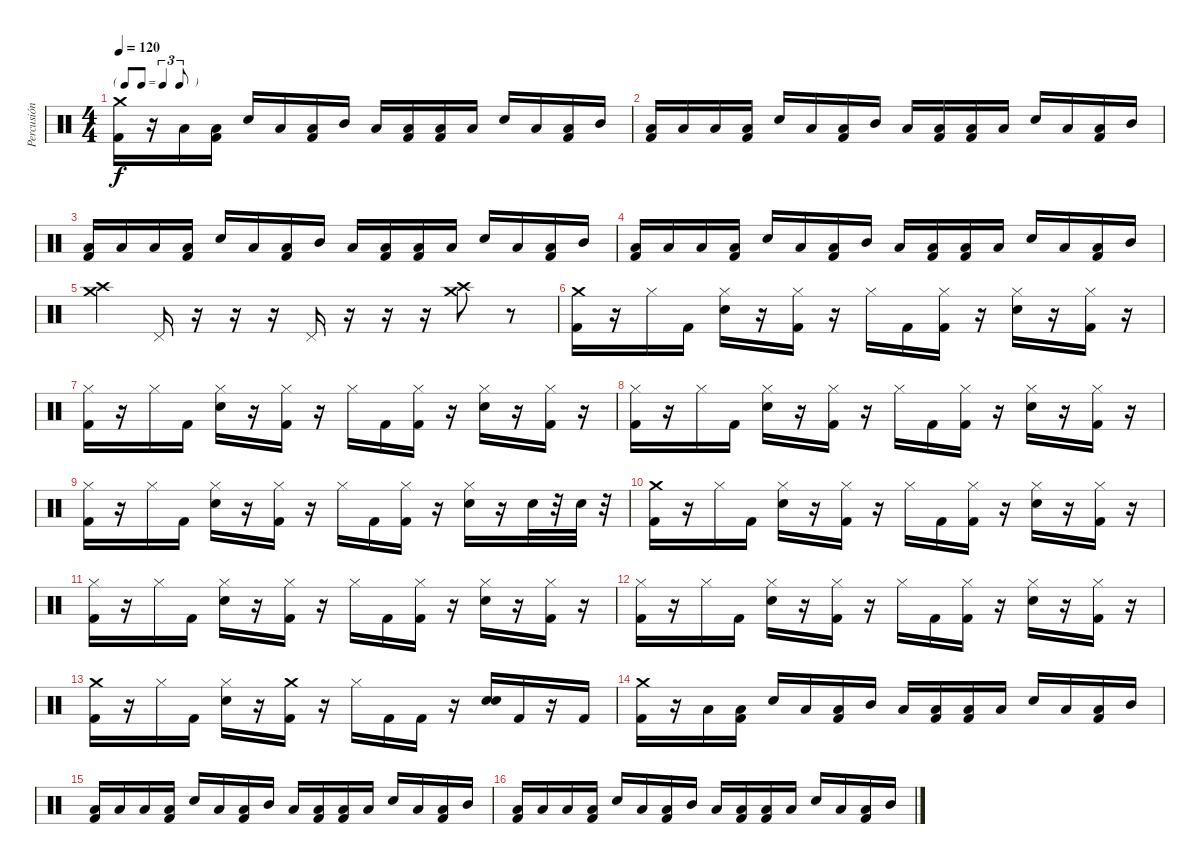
\track ("Percusión" "Percusión") {instrument percussion}
\staff {score}
\articulation defaults
\ts (4 4)
\tf triplet8th
\tempo 120
\clef neutral
\ks c
("Crash medium (hit)" "Kick (hit) 2").16{dy f} r.16 "Low Tom (hit)".16 ("Low Tom (hit)" "Kick (hit) 2").16 "Snare (hit) 2".16 "Low Tom (hit)".16 ("Low Tom (hit)" "Kick (hit) 2").16 "Mid Tom (hit)".16 "Low Tom (hit)".16 ("Low Tom (hit)" "Kick (hit) 2").16 ("Low Tom (hit)" "Kick (hit) 2").16 "Low Tom (hit)".16 "Snare (hit) 2".16 "Low Tom (hit)".16 ("Low Tom (hit)" "Kick (hit) 2").16 "Mid Tom (hit)".16 |
("Low Tom (hit)" "Kick (hit) 2").16 "Low Tom (hit)".16 "Low Tom (hit)".16 ("Low Tom (hit)" "Kick (hit) 2").16 "Snare (hit) 2".16 "Low Tom (hit)".16 ("Low Tom (hit)" "Kick (hit) 2").16 "Mid Tom (hit)".16 "Low Tom (hit)".16 ("Low Tom (hit)" "Kick (hit) 2").16 ("Low Tom (hit)" "Kick (hit) 2").16 "Low Tom (hit)".16 "Snare (hit) 2".16 "Low Tom (hit)".16 ("Low Tom (hit)" "Kick (hit) 2").16 "Mid Tom (hit)".16 |
("Low Tom (hit)" "Kick (hit) 2").16 "Low Tom (hit)".16 "Low Tom (hit)".16 ("Low Tom (hit)" "Kick (hit) 2").16 "Snare (hit) 2".16 "Low Tom (hit)".16 ("Low Tom (hit)" "Kick (hit) 2").16 "Mid Tom (hit)".16 "Low Tom (hit)".16 ("Low Tom (hit)" "Kick (hit) 2").16 ("Low Tom (hit)" "Kick (hit) 2").16 "Low Tom (hit)".16 "Snare (hit) 2".16 "Low Tom (hit)".16 ("Low Tom (hit)" "Kick (hit) 2").16 "Mid Tom (hit)".16 |
("Low Tom (hit)" "Kick (hit) 2").16 "Low Tom (hit)".16 "Low Tom (hit)".16 ("Low Tom (hit)" "Kick (hit) 2").16 "Snare (hit) 2".16 "Low Tom (hit)".16 ("Low Tom (hit)" "Kick (hit) 2").16 "Mid Tom (hit)".16 "Low Tom (hit)".16 ("Low Tom (hit)" "Kick (hit) 2").16 ("Low Tom (hit)" "Kick (hit) 2").16 "Low Tom (hit)".16 "Snare (hit) 2".16 "Low Tom (hit)".16 ("Low Tom (hit)" "Kick (hit) 2").16 "Mid Tom (hit)".16 |
("Crash medium (hit)" "Crash high (hit)").4 "Pedal Hi-Hat (hit)".16 r.16 r.16 r.16 "Pedal Hi-Hat (hit)".16 r.16 r.16 r.16 ("Crash medium (hit)" "Crash high (hit)").8 r.8 |
("Crash medium (hit)" "Kick (hit) 2").16 r.16 "Hi-Hat (closed)".16 "Kick (hit) 2".16 ("Hi-Hat (closed)" "Snare (hit) 2").16 r.16 ("Hi-Hat (closed)" "Kick (hit) 2").16 r.16 "Hi-Hat (closed)".16 "Kick (hit) 2".16 ("Hi-Hat (closed)" "Kick (hit) 2").16 r.16 ("Hi-Hat (closed)" "Snare (hit) 2").16 r.16 ("Hi-Hat (closed)" "Kick (hit) 2").16 r.16 |
("Hi-Hat (closed)" "Kick (hit) 2").16 r.16 "Hi-Hat (closed)".16 "Kick (hit) 2".16 ("Hi-Hat (closed)" "Snare (hit) 2").16 r.16 ("Hi-Hat (closed)" "Kick (hit) 2").16 r.16 "Hi-Hat (closed)".16 "Kick (hit) 2".16 ("Hi-Hat (closed)" "Kick (hit) 2").16 r.16 ("Hi-Hat (closed)" "Snare (hit) 2").16 r.16 ("Hi-Hat (closed)" "Kick (hit) 2").16 r.16 |
("Hi-Hat (closed)" "Kick (hit) 2").16 r.16 "Hi-Hat (closed)".16 "Kick (hit) 2".16 ("Hi-Hat (closed)" "Snare (hit) 2").16 r.16 ("Hi-Hat (closed)" "Kick (hit) 2").16 r.16 "Hi-Hat (closed)".16 "Kick (hit) 2".16 ("Hi-Hat (closed)" "Kick (hit) 2").16 r.16 ("Hi-Hat (closed)" "Snare (hit) 2").16 r.16 ("Hi-Hat (closed)" "Kick (hit) 2").16 r.16 |
("Hi-Hat (closed)" "Kick (hit) 2").16 r.16 "Hi-Hat (closed)".16 "Kick (hit) 2".16 ("Hi-Hat (closed)" "Snare (hit) 2").16 r.16 ("Hi-Hat (closed)" "Kick (hit) 2").16 r.16 "Hi-Hat (closed)".16 "Kick (hit) 2".16 ("Hi-Hat (closed)" "Kick (hit) 2").16 r.16 ("Hi-Hat (closed)" "Snare (hit) 2").16 r.16 "Snare (hit) 2".32 r.32 "Snare (hit) 2".32 r.32 |
("Crash medium (hit)" "Kick (hit) 2").16 r.16 "Hi-Hat (closed)".16 "Kick (hit) 2".16 ("Hi-Hat (closed)" "Snare (hit) 2").16 r.16 ("Hi-Hat (closed)" "Kick (hit) 2").16 r.16 "Hi-Hat (closed)".16 "Kick (hit) 2".16 ("Hi-Hat (closed)" "Kick (hit) 2").16 r.16 ("Hi-Hat (closed)" "Snare (hit) 2").16 r.16 ("Hi-Hat (closed)" "Kick (hit) 2").16 r.16 |
("Hi-Hat (closed)" "Kick (hit) 2").16 r.16 "Hi-Hat (closed)".16 "Kick (hit) 2".16 ("Hi-Hat (closed)" "Snare (hit) 2").16 r.16 ("Hi-Hat (closed)" "Kick (hit) 2").16 r.16 "Hi-Hat (closed)".16 "Kick (hit) 2".16 ("Hi-Hat (closed)" "Kick (hit) 2").16 r.16 ("Hi-Hat (closed)" "Snare (hit) 2").16 r.16 ("Hi-Hat (closed)" "Kick (hit) 2").16 r.16 |
("Hi-Hat (closed)" "Kick (hit) 2").16 r.16 "Hi-Hat (closed)".16 "Kick (hit) 2".16 ("Hi-Hat (closed)" "Snare (hit) 2").16 r.16 ("Hi-Hat (closed)" "Kick (hit) 2").16 r.16 "Hi-Hat (closed)".16 "Kick (hit) 2".16 ("Hi-Hat (closed)" "Kick (hit) 2").16 r.16 ("Hi-Hat (closed)" "Snare (hit) 2").16 r.16 ("Hi-Hat (closed)" "Kick (hit) 2").16 r.16 |
("Crash medium (hit)" "Kick (hit) 2").16 r.16 "Hi-Hat (closed)".16 "Kick (hit) 2".16 ("Hi-Hat (closed)" "Snare (hit) 2").16 r.16 ("Crash medium (hit)" "Kick (hit) 2").16 r.16 "Hi-Hat (closed)".16 "Kick (hit) 2".16 "Kick (hit) 2".16 r.16 ("Snare (hit) 2" "Snare (hit) 2").16 "Kick (hit) 2".16 r.16 "Kick (hit) 2".16 |
("Crash medium (hit)" "Kick (hit) 2").16 r.16 "Low Tom (hit)".16 ("Low Tom (hit)" "Kick (hit) 2").16 "Snare (hit) 2".16 "Low Tom (hit)".16 ("Low Tom (hit)" "Kick (hit) 2").16 "Mid Tom (hit)".16 "Low Tom (hit)".16 ("Low Tom (hit)" "Kick (hit) 2").16 ("Low Tom (hit)" "Kick (hit) 2").16 "Low Tom (hit)".16 "Snare (hit) 2".16 "Low Tom (hit)".16 ("Low Tom (hit)" "Kick (hit) 2").16 "Mid Tom (hit)".16 |
("Low Tom (hit)" "Kick (hit) 2").16 "Low Tom (hit)".16 "Low Tom (hit)".16 ("Low Tom (hit)" "Kick (hit) 2").16 "Snare (hit) 2".16 "Low Tom (hit)".16 ("Low Tom (hit)" "Kick (hit) 2").16 "Mid Tom (hit)".16 "Low Tom (hit)".16 ("Low Tom (hit)" "Kick (hit) 2").16 ("Low Tom (hit)" "Kick (hit) 2").16 "Low Tom (hit)".16 "Snare (hit) 2".16 "Low Tom (hit)".16 ("Low Tom (hit)" "Kick (hit) 2").16 "Mid Tom (hit)".16 |
("Low Tom (hit)" "Kick (hit) 2").16 "Low Tom (hit)".16 "Low Tom (hit)".16 ("Low Tom (hit)" "Kick (hit) 2").16 "Snare (hit) 2".16 "Low Tom (hit)".16 ("Low Tom (hit)" "Kick (hit) 2").16 "Mid Tom (hit)".16 "Low Tom (hit)".16 ("Low Tom (hit)" "Kick (hit) 2").16 ("Low Tom (hit)" "Kick (hit) 2").16 "Low Tom (hit)".16 "Snare (hit) 2".16 "Low Tom (hit)".16 ("Low Tom (hit)" "Kick (hit) 2").16 "Mid Tom (hit)".16
